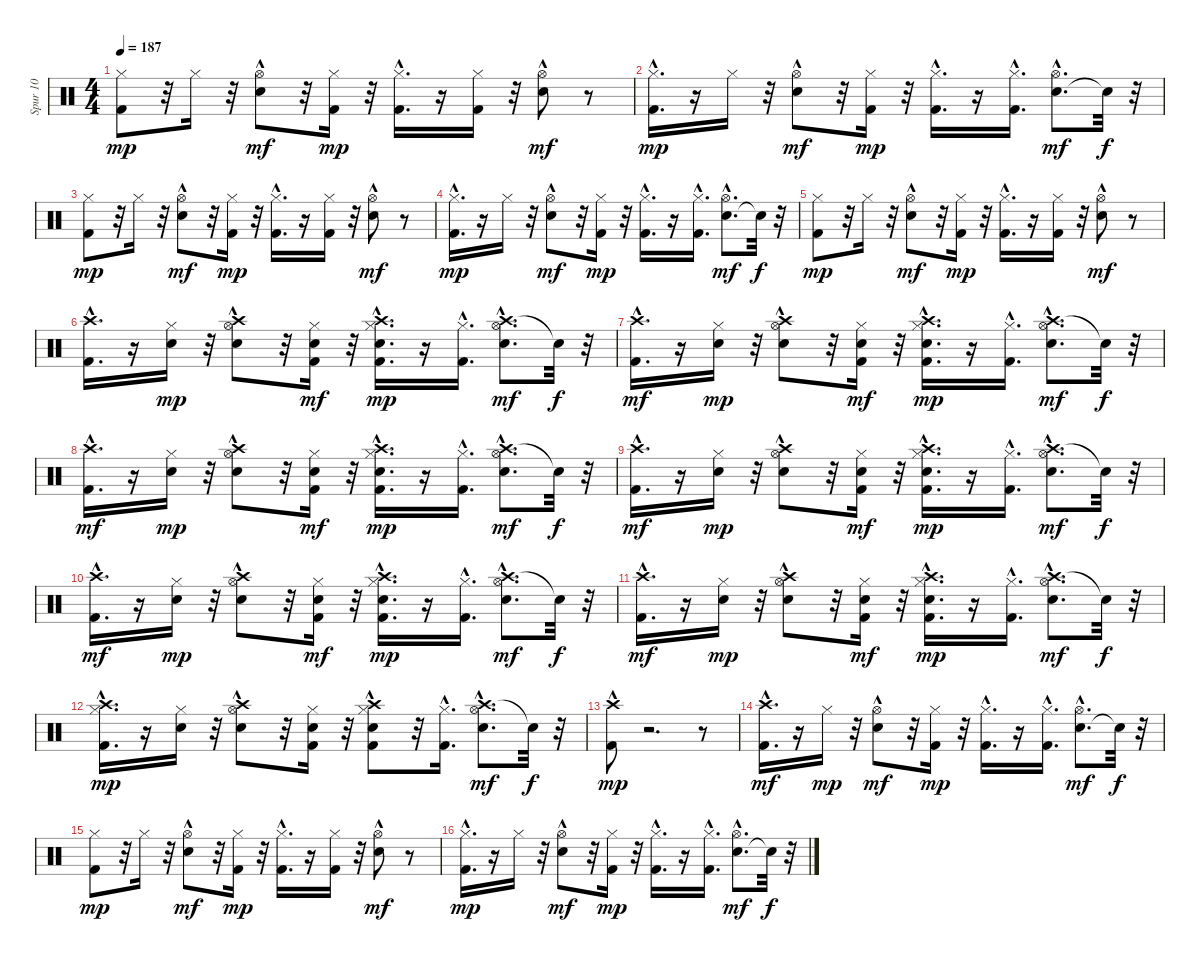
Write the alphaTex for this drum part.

\track ("Spur 10" "Spur 10") {instrument percussion}
\staff {score}
\articulation defaults
\ts (4 4)
\tempo 187
\clef neutral
\ks c
("Kick (hit) 2" "Hi-Hat (closed)").8{dy mp} r.32 "Hi-Hat (closed)".16 r.32 ("Electric Snare (hit)"{hac} "Hi-Hat (open)").8{dy mf} r.32 ("Kick (hit) 2" "Hi-Hat (closed)").16{dy mp} r.32 ("Kick (hit) 2"{hac} "Hi-Hat (closed)").16{d} r.16 ("Kick (hit) 2" "Hi-Hat (closed)").16 r.32 ("Electric Snare (hit)"{hac} "Hi-Hat (open)").8{dy mf} r.8 |
("Kick (hit) 2"{hac} "Hi-Hat (closed)").16{d dy mp} r.16 "Hi-Hat (closed)".16 r.32 ("Electric Snare (hit)"{hac} "Hi-Hat (open)").8{dy mf} r.32 ("Kick (hit) 2" "Hi-Hat (closed)").16{dy mp} r.32 ("Kick (hit) 2"{hac} "Hi-Hat (closed)").16{d} r.16 ("Kick (hit) 2"{hac} "Hi-Hat (closed)").16{d} ("Electric Snare (hit)" "Hi-Hat (open)"{hac}).8{d dy mf} "Snare (hit)"{t}.32{dy f} r.32 |
("Kick (hit) 2" "Hi-Hat (closed)").8{dy mp} r.32 "Hi-Hat (closed)".16 r.32 ("Electric Snare (hit)"{hac} "Hi-Hat (open)").8{dy mf} r.32 ("Kick (hit) 2" "Hi-Hat (closed)").16{dy mp} r.32 ("Kick (hit) 2"{hac} "Hi-Hat (closed)").16{d} r.16 ("Kick (hit) 2" "Hi-Hat (closed)").16 r.32 ("Electric Snare (hit)"{hac} "Hi-Hat (open)").8{dy mf} r.8 |
("Kick (hit) 2"{hac} "Hi-Hat (closed)").16{d dy mp} r.16 "Hi-Hat (closed)".16 r.32 ("Electric Snare (hit)"{hac} "Hi-Hat (open)").8{dy mf} r.32 ("Kick (hit) 2" "Hi-Hat (closed)").16{dy mp} r.32 ("Kick (hit) 2"{hac} "Hi-Hat (closed)").16{d} r.16 ("Kick (hit) 2"{hac} "Hi-Hat (closed)").16{d} ("Electric Snare (hit)" "Hi-Hat (open)"{hac}).8{d dy mf} "Snare (hit)"{t}.32{dy f} r.32 |
("Kick (hit) 2" "Hi-Hat (closed)").8{dy mp} r.32 "Hi-Hat (closed)".16 r.32 ("Electric Snare (hit)"{hac} "Hi-Hat (open)").8{dy mf} r.32 ("Kick (hit) 2" "Hi-Hat (closed)").16{dy mp} r.32 ("Kick (hit) 2"{hac} "Hi-Hat (closed)").16{d} r.16 ("Kick (hit) 2" "Hi-Hat (closed)").16 r.32 ("Electric Snare (hit)"{hac} "Hi-Hat (open)").8{dy mf} r.8 |
("Kick (hit) 2"{hac} "Crash high (hit)").16{d} r.16 ("Metronome (bell)" "Hi-Hat (closed)").16{dy mp} r.32 ("Electric Snare (hit)"{hac} "Hi-Hat (open)" "Crash high (hit)"{hac}).8 r.32 ("Metronome (bell)" "Hi-Hat (closed)" "Kick (hit) 2").16{dy mf} r.32 ("Snare (hit) 2" "Kick (hit) 2"{hac} "Hi-Hat (closed)" "Crash high (hit)"{hac}).16{d dy mp} r.16 ("Kick (hit) 2"{hac} "Hi-Hat (closed)").16{d} ("Crash high (hit)"{hac} "Electric Snare (hit)" "Hi-Hat (open)"{hac}).8{d dy mf} "Snare (hit)"{t}.32{dy f} r.32 |
("Kick (hit) 2"{hac} "Crash high (hit)").16{d dy mf} r.16 ("Metronome (bell)" "Hi-Hat (closed)").16{dy mp} r.32 ("Electric Snare (hit)"{hac} "Hi-Hat (open)" "Crash high (hit)"{hac}).8 r.32 ("Metronome (bell)" "Hi-Hat (closed)" "Kick (hit) 2").16{dy mf} r.32 ("Snare (hit) 2" "Kick (hit) 2"{hac} "Hi-Hat (closed)" "Crash high (hit)"{hac}).16{d dy mp} r.16 ("Kick (hit) 2"{hac} "Hi-Hat (closed)").16{d} ("Crash high (hit)"{hac} "Electric Snare (hit)" "Hi-Hat (open)"{hac}).8{d dy mf} "Snare (hit)"{t}.32{dy f} r.32 |
("Kick (hit) 2"{hac} "Crash high (hit)").16{d dy mf} r.16 ("Metronome (bell)" "Hi-Hat (closed)").16{dy mp} r.32 ("Electric Snare (hit)"{hac} "Hi-Hat (open)" "Crash high (hit)"{hac}).8 r.32 ("Metronome (bell)" "Hi-Hat (closed)" "Kick (hit) 2").16{dy mf} r.32 ("Snare (hit) 2" "Kick (hit) 2"{hac} "Hi-Hat (closed)" "Crash high (hit)"{hac}).16{d dy mp} r.16 ("Kick (hit) 2"{hac} "Hi-Hat (closed)").16{d} ("Crash high (hit)"{hac} "Electric Snare (hit)" "Hi-Hat (open)"{hac}).8{d dy mf} "Snare (hit)"{t}.32{dy f} r.32 |
("Kick (hit) 2"{hac} "Crash high (hit)").16{d dy mf} r.16 ("Metronome (bell)" "Hi-Hat (closed)").16{dy mp} r.32 ("Electric Snare (hit)"{hac} "Hi-Hat (open)" "Crash high (hit)"{hac}).8 r.32 ("Metronome (bell)" "Hi-Hat (closed)" "Kick (hit) 2").16{dy mf} r.32 ("Snare (hit) 2" "Kick (hit) 2"{hac} "Hi-Hat (closed)" "Crash high (hit)"{hac}).16{d dy mp} r.16 ("Kick (hit) 2"{hac} "Hi-Hat (closed)").16{d} ("Crash high (hit)"{hac} "Electric Snare (hit)" "Hi-Hat (open)"{hac}).8{d dy mf} "Snare (hit)"{t}.32{dy f} r.32 |
("Kick (hit) 2"{hac} "Crash high (hit)").16{d dy mf} r.16 ("Metronome (bell)" "Hi-Hat (closed)").16{dy mp} r.32 ("Electric Snare (hit)"{hac} "Hi-Hat (open)" "Crash high (hit)"{hac}).8 r.32 ("Metronome (bell)" "Hi-Hat (closed)" "Kick (hit) 2").16{dy mf} r.32 ("Snare (hit) 2" "Kick (hit) 2"{hac} "Hi-Hat (closed)" "Crash high (hit)"{hac}).16{d dy mp} r.16 ("Kick (hit) 2"{hac} "Hi-Hat (closed)").16{d} ("Crash high (hit)"{hac} "Electric Snare (hit)" "Hi-Hat (open)"{hac}).8{d dy mf} "Snare (hit)"{t}.32{dy f} r.32 |
("Kick (hit) 2"{hac} "Crash high (hit)").16{d dy mf} r.16 ("Metronome (bell)" "Hi-Hat (closed)").16{dy mp} r.32 ("Electric Snare (hit)"{hac} "Hi-Hat (open)" "Crash high (hit)"{hac}).8 r.32 ("Metronome (bell)" "Hi-Hat (closed)" "Kick (hit) 2").16{dy mf} r.32 ("Snare (hit) 2" "Kick (hit) 2"{hac} "Hi-Hat (closed)" "Crash high (hit)"{hac}).16{d dy mp} r.16 ("Kick (hit) 2"{hac} "Hi-Hat (closed)").16{d} ("Crash high (hit)"{hac} "Electric Snare (hit)" "Hi-Hat (open)"{hac}).8{d dy mf} "Snare (hit)"{t}.32{dy f} r.32 |
("Kick (hit) 2"{hac} "Hi-Hat (closed)" "Crash high (hit)"{hac}).16{d dy mp} r.16 ("Metronome (bell)" "Hi-Hat (closed)").16 r.32 ("Electric Snare (hit)"{hac} "Hi-Hat (open)" "Crash high (hit)"{hac}).8 r.32 ("Metronome (bell)" "Kick (hit) 2" "Hi-Hat (closed)").16 r.32 ("Snare (hit) 2" "Kick (hit) 2"{hac} "Hi-Hat (closed)" "Crash high (hit)").8 r.32 ("Kick (hit) 2"{hac} "Hi-Hat (closed)").16{d} ("Crash high (hit)"{hac} "Electric Snare (hit)" "Hi-Hat (open)"{hac}).8{d dy mf} "Snare (hit)"{t}.32{dy f} r.32 |
("Crash high (hit)"{hac} "Kick (hit) 2").8{dy mp} r.2{d} r.8 |
("Kick (hit) 2"{hac} "Crash high (hit)").16{d dy mf} r.16 "Hi-Hat (closed)".16{dy mp} r.32 ("Electric Snare (hit)"{hac} "Hi-Hat (open)").8{dy mf} r.32 ("Kick (hit) 2" "Hi-Hat (closed)").16{dy mp} r.32 ("Kick (hit) 2"{hac} "Hi-Hat (closed)").16{d} r.16 ("Kick (hit) 2"{hac} "Hi-Hat (closed)").16{d} ("Electric Snare (hit)" "Hi-Hat (open)"{hac}).8{d dy mf} "Snare (hit)"{t}.32{dy f} r.32 |
("Kick (hit) 2" "Hi-Hat (closed)").8{dy mp} r.32 "Hi-Hat (closed)".16 r.32 ("Electric Snare (hit)"{hac} "Hi-Hat (open)").8{dy mf} r.32 ("Kick (hit) 2" "Hi-Hat (closed)").16{dy mp} r.32 ("Kick (hit) 2"{hac} "Hi-Hat (closed)").16{d} r.16 ("Kick (hit) 2" "Hi-Hat (closed)").16 r.32 ("Electric Snare (hit)"{hac} "Hi-Hat (open)").8{dy mf} r.8 |
("Kick (hit) 2"{hac} "Hi-Hat (closed)").16{d dy mp} r.16 "Hi-Hat (closed)".16 r.32 ("Electric Snare (hit)"{hac} "Hi-Hat (open)").8{dy mf} r.32 ("Kick (hit) 2" "Hi-Hat (closed)").16{dy mp} r.32 ("Kick (hit) 2"{hac} "Hi-Hat (closed)").16{d} r.16 ("Kick (hit) 2"{hac} "Hi-Hat (closed)").16{d} ("Electric Snare (hit)" "Hi-Hat (open)"{hac}).8{d dy mf} "Snare (hit)"{t}.32{dy f} r.32
